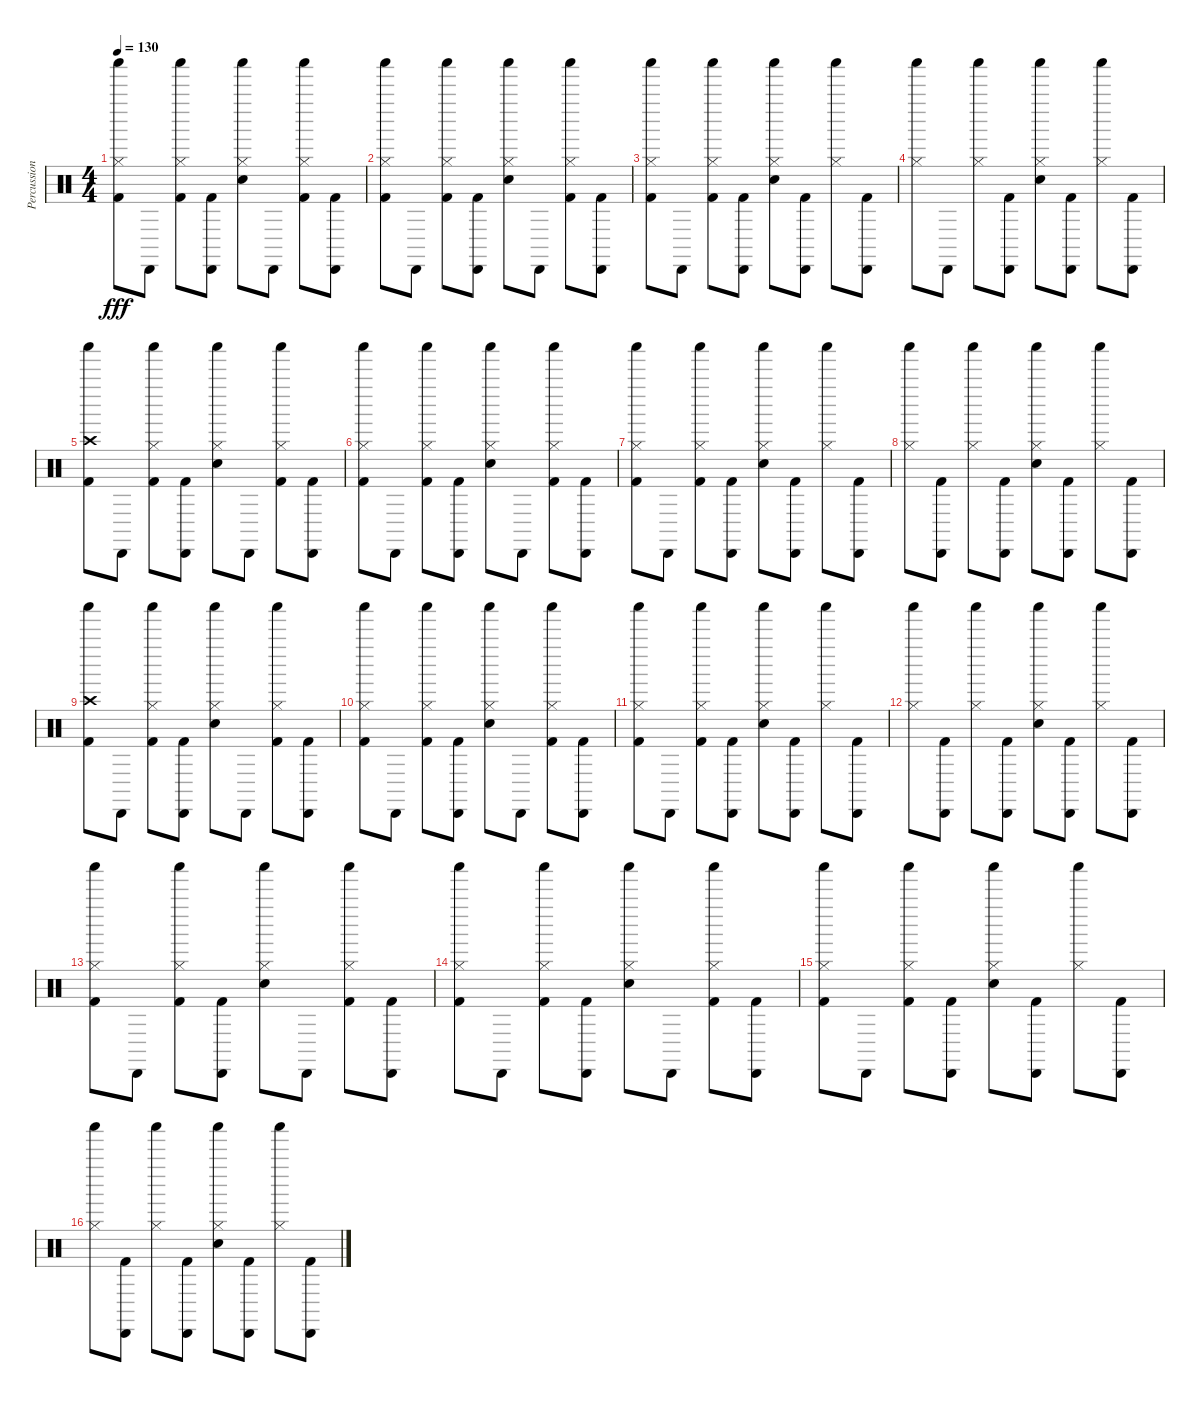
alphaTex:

\track ("Percussion" "Percussion") {instrument percussion}
\staff {score}
\articulation defaults
\ts (4 4)
\tempo 130
\clef neutral
\ks c
("Shaker (hit)" "Hi-Hat (closed)" "Kick (hit) 2").8{dy fff} "Cabasa (hit)".8 ("Shaker (hit)" "Hi-Hat (closed)" "Kick (hit) 2").8 ("Cabasa (hit)" "Kick (hit) 2").8 ("Shaker (hit)" "Hi-Hat (closed)" "Snare (hit) 2").8 "Cabasa (hit)".8 ("Shaker (hit)" "Hi-Hat (closed)" "Kick (hit) 2").8 ("Cabasa (hit)" "Kick (hit) 2").8 |
("Shaker (hit)" "Hi-Hat (closed)" "Kick (hit) 2").8 "Cabasa (hit)".8 ("Shaker (hit)" "Hi-Hat (closed)" "Kick (hit) 2").8 ("Cabasa (hit)" "Kick (hit) 2").8 ("Shaker (hit)" "Hi-Hat (closed)" "Snare (hit) 2").8 "Cabasa (hit)".8 ("Shaker (hit)" "Hi-Hat (closed)" "Kick (hit) 2").8 ("Cabasa (hit)" "Kick (hit) 2").8 |
("Shaker (hit)" "Hi-Hat (closed)" "Kick (hit) 2").8 "Cabasa (hit)".8 ("Shaker (hit)" "Hi-Hat (closed)" "Kick (hit) 2").8 ("Cabasa (hit)" "Kick (hit) 2").8 ("Shaker (hit)" "Hi-Hat (closed)" "Snare (hit) 2").8 ("Cabasa (hit)" "Kick (hit) 2").8 ("Shaker (hit)" "Hi-Hat (closed)").8 ("Cabasa (hit)" "Kick (hit) 2").8 |
("Shaker (hit)" "Hi-Hat (closed)").8 "Cabasa (hit)".8 ("Shaker (hit)" "Hi-Hat (closed)").8 ("Cabasa (hit)" "Kick (hit) 2").8 ("Shaker (hit)" "Hi-Hat (closed)" "Snare (hit) 2").8 ("Cabasa (hit)" "Kick (hit) 2").8 ("Shaker (hit)" "Hi-Hat (closed)").8 ("Cabasa (hit)" "Kick (hit) 2").8 |
("Shaker (hit)" "Crash high (hit)" "Kick (hit) 2").8 "Cabasa (hit)".8 ("Shaker (hit)" "Hi-Hat (closed)" "Kick (hit) 2").8 ("Cabasa (hit)" "Kick (hit) 2").8 ("Shaker (hit)" "Hi-Hat (closed)" "Snare (hit) 2").8 "Cabasa (hit)".8 ("Shaker (hit)" "Hi-Hat (closed)" "Kick (hit) 2").8 ("Cabasa (hit)" "Kick (hit) 2").8 |
("Shaker (hit)" "Hi-Hat (closed)" "Kick (hit) 2").8 "Cabasa (hit)".8 ("Shaker (hit)" "Hi-Hat (closed)" "Kick (hit) 2").8 ("Cabasa (hit)" "Kick (hit) 2").8 ("Shaker (hit)" "Hi-Hat (closed)" "Snare (hit) 2").8 "Cabasa (hit)".8 ("Shaker (hit)" "Hi-Hat (closed)" "Kick (hit) 2").8 ("Cabasa (hit)" "Kick (hit) 2").8 |
("Shaker (hit)" "Hi-Hat (closed)" "Kick (hit) 2").8 "Cabasa (hit)".8 ("Shaker (hit)" "Hi-Hat (closed)" "Kick (hit) 2").8 ("Cabasa (hit)" "Kick (hit) 2").8 ("Shaker (hit)" "Hi-Hat (closed)" "Snare (hit) 2").8 ("Cabasa (hit)" "Kick (hit) 2").8 ("Shaker (hit)" "Hi-Hat (closed)").8 ("Cabasa (hit)" "Kick (hit) 2").8 |
("Shaker (hit)" "Hi-Hat (closed)").8 ("Cabasa (hit)" "Kick (hit) 2").8 ("Shaker (hit)" "Hi-Hat (closed)").8 ("Cabasa (hit)" "Kick (hit) 2").8 ("Shaker (hit)" "Hi-Hat (closed)" "Snare (hit) 2").8 ("Cabasa (hit)" "Kick (hit) 2").8 ("Shaker (hit)" "Hi-Hat (closed)").8 ("Cabasa (hit)" "Kick (hit) 2").8 |
("Shaker (hit)" "Crash high (hit)" "Kick (hit) 2").8 "Cabasa (hit)".8 ("Shaker (hit)" "Hi-Hat (closed)" "Kick (hit) 2").8 ("Cabasa (hit)" "Kick (hit) 2").8 ("Shaker (hit)" "Hi-Hat (closed)" "Snare (hit) 2").8 "Cabasa (hit)".8 ("Shaker (hit)" "Hi-Hat (closed)" "Kick (hit) 2").8 ("Cabasa (hit)" "Kick (hit) 2").8 |
("Shaker (hit)" "Hi-Hat (closed)" "Kick (hit) 2").8 "Cabasa (hit)".8 ("Shaker (hit)" "Hi-Hat (closed)" "Kick (hit) 2").8 ("Cabasa (hit)" "Kick (hit) 2").8 ("Shaker (hit)" "Hi-Hat (closed)" "Snare (hit) 2").8 "Cabasa (hit)".8 ("Shaker (hit)" "Hi-Hat (closed)" "Kick (hit) 2").8 ("Cabasa (hit)" "Kick (hit) 2").8 |
("Shaker (hit)" "Hi-Hat (closed)" "Kick (hit) 2").8 "Cabasa (hit)".8 ("Shaker (hit)" "Hi-Hat (closed)" "Kick (hit) 2").8 ("Cabasa (hit)" "Kick (hit) 2").8 ("Shaker (hit)" "Hi-Hat (closed)" "Snare (hit) 2").8 ("Cabasa (hit)" "Kick (hit) 2").8 ("Shaker (hit)" "Hi-Hat (closed)").8 ("Cabasa (hit)" "Kick (hit) 2").8 |
("Shaker (hit)" "Hi-Hat (closed)").8 ("Cabasa (hit)" "Kick (hit) 2").8 ("Shaker (hit)" "Hi-Hat (closed)").8 ("Cabasa (hit)" "Kick (hit) 2").8 ("Shaker (hit)" "Hi-Hat (closed)" "Snare (hit) 2").8 ("Cabasa (hit)" "Kick (hit) 2").8 ("Shaker (hit)" "Hi-Hat (closed)").8 ("Cabasa (hit)" "Kick (hit) 2").8 |
("Shaker (hit)" "Hi-Hat (closed)" "Kick (hit) 2").8 "Cabasa (hit)".8 ("Shaker (hit)" "Hi-Hat (closed)" "Kick (hit) 2").8 ("Cabasa (hit)" "Kick (hit) 2").8 ("Shaker (hit)" "Hi-Hat (closed)" "Snare (hit) 2").8 "Cabasa (hit)".8 ("Shaker (hit)" "Hi-Hat (closed)" "Kick (hit) 2").8 ("Cabasa (hit)" "Kick (hit) 2").8 |
("Shaker (hit)" "Hi-Hat (closed)" "Kick (hit) 2").8 "Cabasa (hit)".8 ("Shaker (hit)" "Hi-Hat (closed)" "Kick (hit) 2").8 ("Cabasa (hit)" "Kick (hit) 2").8 ("Shaker (hit)" "Hi-Hat (closed)" "Snare (hit) 2").8 "Cabasa (hit)".8 ("Shaker (hit)" "Hi-Hat (closed)" "Kick (hit) 2").8 ("Cabasa (hit)" "Kick (hit) 2").8 |
("Shaker (hit)" "Hi-Hat (closed)" "Kick (hit) 2").8 "Cabasa (hit)".8 ("Shaker (hit)" "Hi-Hat (closed)" "Kick (hit) 2").8 ("Cabasa (hit)" "Kick (hit) 2").8 ("Shaker (hit)" "Hi-Hat (closed)" "Snare (hit) 2").8 ("Cabasa (hit)" "Kick (hit) 2").8 ("Shaker (hit)" "Hi-Hat (closed)").8 ("Cabasa (hit)" "Kick (hit) 2").8 |
("Shaker (hit)" "Hi-Hat (closed)").8 ("Cabasa (hit)" "Kick (hit) 2").8 ("Shaker (hit)" "Hi-Hat (closed)").8 ("Cabasa (hit)" "Kick (hit) 2").8 ("Shaker (hit)" "Hi-Hat (closed)" "Snare (hit) 2").8 ("Cabasa (hit)" "Kick (hit) 2").8 ("Shaker (hit)" "Hi-Hat (closed)").8 ("Cabasa (hit)" "Kick (hit) 2").8
